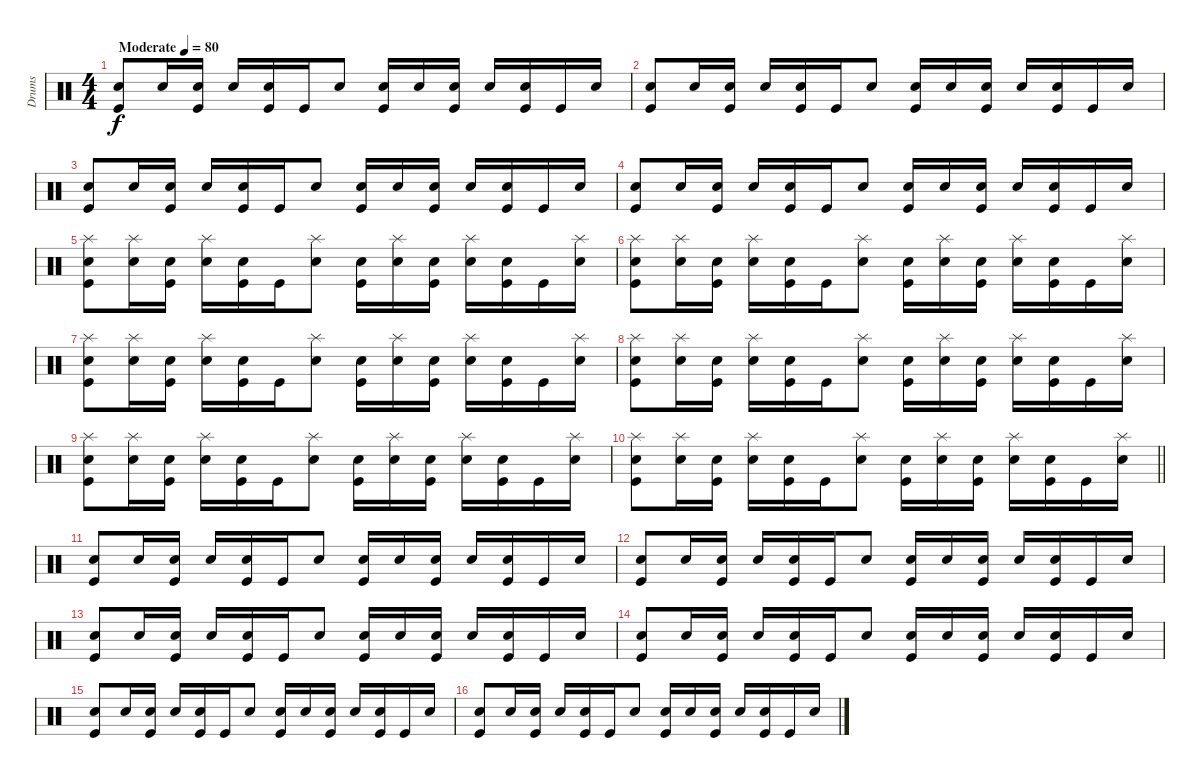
\track ("Drums" "Drums") {instrument percussion}
\staff {score}
\articulation defaults
\ts (4 4)
\tempo (80 "Moderate")
\clef neutral
\ks c
("Electric Snare (hit)" "Kick (hit)").8{dy f} "Snare (hit) 2".16 ("Electric Snare (hit)" "Kick (hit)").16 "Snare (hit) 2".16 ("Electric Snare (hit)" "Kick (hit)").16 "Kick (hit)".16 "Snare (hit) 2".8 ("Electric Snare (hit)" "Kick (hit)").16 "Snare (hit) 2".16 ("Electric Snare (hit)" "Kick (hit)").16 "Snare (hit) 2".16 ("Electric Snare (hit)" "Kick (hit)").16 "Kick (hit)".16 "Snare (hit) 2".16 |
("Electric Snare (hit)" "Kick (hit)").8 "Snare (hit) 2".16 ("Electric Snare (hit)" "Kick (hit)").16 "Snare (hit) 2".16 ("Electric Snare (hit)" "Kick (hit)").16 "Kick (hit)".16 "Snare (hit) 2".8 ("Electric Snare (hit)" "Kick (hit)").16 "Snare (hit) 2".16 ("Electric Snare (hit)" "Kick (hit)").16 "Snare (hit) 2".16 ("Electric Snare (hit)" "Kick (hit)").16 "Kick (hit)".16 "Snare (hit) 2".16 |
("Electric Snare (hit)" "Kick (hit)").8 "Snare (hit) 2".16 ("Electric Snare (hit)" "Kick (hit)").16 "Snare (hit) 2".16 ("Electric Snare (hit)" "Kick (hit)").16 "Kick (hit)".16 "Snare (hit) 2".8 ("Electric Snare (hit)" "Kick (hit)").16 "Snare (hit) 2".16 ("Electric Snare (hit)" "Kick (hit)").16 "Snare (hit) 2".16 ("Electric Snare (hit)" "Kick (hit)").16 "Kick (hit)".16 "Snare (hit) 2".16 |
("Electric Snare (hit)" "Kick (hit)").8 "Snare (hit) 2".16 ("Electric Snare (hit)" "Kick (hit)").16 "Snare (hit) 2".16 ("Electric Snare (hit)" "Kick (hit)").16 "Kick (hit)".16 "Snare (hit) 2".8 ("Electric Snare (hit)" "Kick (hit)").16 "Snare (hit) 2".16 ("Electric Snare (hit)" "Kick (hit)").16 "Snare (hit) 2".16 ("Electric Snare (hit)" "Kick (hit)").16 "Kick (hit)".16 "Snare (hit) 2".16 |
("Splash (hit)" "Electric Snare (hit)" "Kick (hit)").8 ("Splash (hit)" "Snare (hit) 2").16 ("Electric Snare (hit)" "Kick (hit)").16 ("Splash (hit)" "Snare (hit) 2").16 ("Electric Snare (hit)" "Kick (hit)").16 "Kick (hit)".16 ("Splash (hit)" "Snare (hit) 2").8 ("Electric Snare (hit)" "Kick (hit)").16 ("Splash (hit)" "Snare (hit) 2").16 ("Electric Snare (hit)" "Kick (hit)").16 ("Splash (hit)" "Snare (hit) 2").16 ("Electric Snare (hit)" "Kick (hit)").16 "Kick (hit)".16 ("Splash (hit)" "Snare (hit) 2").16 |
("Splash (hit)" "Electric Snare (hit)" "Kick (hit)").8 ("Splash (hit)" "Snare (hit) 2").16 ("Electric Snare (hit)" "Kick (hit)").16 ("Splash (hit)" "Snare (hit) 2").16 ("Electric Snare (hit)" "Kick (hit)").16 "Kick (hit)".16 ("Splash (hit)" "Snare (hit) 2").8 ("Electric Snare (hit)" "Kick (hit)").16 ("Splash (hit)" "Snare (hit) 2").16 ("Electric Snare (hit)" "Kick (hit)").16 ("Splash (hit)" "Snare (hit) 2").16 ("Electric Snare (hit)" "Kick (hit)").16 "Kick (hit)".16 ("Splash (hit)" "Snare (hit) 2").16 |
("Splash (hit)" "Electric Snare (hit)" "Kick (hit)").8 ("Splash (hit)" "Snare (hit) 2").16 ("Electric Snare (hit)" "Kick (hit)").16 ("Splash (hit)" "Snare (hit) 2").16 ("Electric Snare (hit)" "Kick (hit)").16 "Kick (hit)".16 ("Splash (hit)" "Snare (hit) 2").8 ("Electric Snare (hit)" "Kick (hit)").16 ("Splash (hit)" "Snare (hit) 2").16 ("Electric Snare (hit)" "Kick (hit)").16 ("Splash (hit)" "Snare (hit) 2").16 ("Electric Snare (hit)" "Kick (hit)").16 "Kick (hit)".16 ("Splash (hit)" "Snare (hit) 2").16 |
("Splash (hit)" "Electric Snare (hit)" "Kick (hit)").8 ("Splash (hit)" "Snare (hit) 2").16 ("Electric Snare (hit)" "Kick (hit)").16 ("Splash (hit)" "Snare (hit) 2").16 ("Electric Snare (hit)" "Kick (hit)").16 "Kick (hit)".16 ("Splash (hit)" "Snare (hit) 2").8 ("Electric Snare (hit)" "Kick (hit)").16 ("Splash (hit)" "Snare (hit) 2").16 ("Electric Snare (hit)" "Kick (hit)").16 ("Splash (hit)" "Snare (hit) 2").16 ("Electric Snare (hit)" "Kick (hit)").16 "Kick (hit)".16 ("Splash (hit)" "Snare (hit) 2").16 |
("Splash (hit)" "Electric Snare (hit)" "Kick (hit)").8 ("Splash (hit)" "Snare (hit) 2").16 ("Electric Snare (hit)" "Kick (hit)").16 ("Splash (hit)" "Snare (hit) 2").16 ("Electric Snare (hit)" "Kick (hit)").16 "Kick (hit)".16 ("Splash (hit)" "Snare (hit) 2").8 ("Electric Snare (hit)" "Kick (hit)").16 ("Splash (hit)" "Snare (hit) 2").16 ("Electric Snare (hit)" "Kick (hit)").16 ("Splash (hit)" "Snare (hit) 2").16 ("Electric Snare (hit)" "Kick (hit)").16 "Kick (hit)".16 ("Splash (hit)" "Snare (hit) 2").16 |
\barLineRight lightlight
("Splash (hit)" "Electric Snare (hit)" "Kick (hit)").8 ("Splash (hit)" "Snare (hit) 2").16 ("Electric Snare (hit)" "Kick (hit)").16 ("Splash (hit)" "Snare (hit) 2").16 ("Electric Snare (hit)" "Kick (hit)").16 "Kick (hit)".16 ("Splash (hit)" "Snare (hit) 2").8 ("Electric Snare (hit)" "Kick (hit)").16 ("Splash (hit)" "Snare (hit) 2").16 ("Electric Snare (hit)" "Kick (hit)").16 ("Splash (hit)" "Snare (hit) 2").16 ("Electric Snare (hit)" "Kick (hit)").16 "Kick (hit)".16 ("Splash (hit)" "Snare (hit) 2").16 |
("Electric Snare (hit)" "Kick (hit)").8 "Snare (hit) 2".16 ("Electric Snare (hit)" "Kick (hit)").16 "Snare (hit) 2".16 ("Electric Snare (hit)" "Kick (hit)").16 "Kick (hit)".16 "Snare (hit) 2".8 ("Electric Snare (hit)" "Kick (hit)").16 "Snare (hit) 2".16 ("Electric Snare (hit)" "Kick (hit)").16 "Snare (hit) 2".16 ("Electric Snare (hit)" "Kick (hit)").16 "Kick (hit)".16 "Snare (hit) 2".16 |
("Electric Snare (hit)" "Kick (hit)").8 "Snare (hit) 2".16 ("Electric Snare (hit)" "Kick (hit)").16 "Snare (hit) 2".16 ("Electric Snare (hit)" "Kick (hit)").16 "Kick (hit)".16 "Snare (hit) 2".8 ("Electric Snare (hit)" "Kick (hit)").16 "Snare (hit) 2".16 ("Electric Snare (hit)" "Kick (hit)").16 "Snare (hit) 2".16 ("Electric Snare (hit)" "Kick (hit)").16 "Kick (hit)".16 "Snare (hit) 2".16 |
("Electric Snare (hit)" "Kick (hit)").8 "Snare (hit) 2".16 ("Electric Snare (hit)" "Kick (hit)").16 "Snare (hit) 2".16 ("Electric Snare (hit)" "Kick (hit)").16 "Kick (hit)".16 "Snare (hit) 2".8 ("Electric Snare (hit)" "Kick (hit)").16 "Snare (hit) 2".16 ("Electric Snare (hit)" "Kick (hit)").16 "Snare (hit) 2".16 ("Electric Snare (hit)" "Kick (hit)").16 "Kick (hit)".16 "Snare (hit) 2".16 |
("Electric Snare (hit)" "Kick (hit)").8 "Snare (hit) 2".16 ("Electric Snare (hit)" "Kick (hit)").16 "Snare (hit) 2".16 ("Electric Snare (hit)" "Kick (hit)").16 "Kick (hit)".16 "Snare (hit) 2".8 ("Electric Snare (hit)" "Kick (hit)").16 "Snare (hit) 2".16 ("Electric Snare (hit)" "Kick (hit)").16 "Snare (hit) 2".16 ("Electric Snare (hit)" "Kick (hit)").16 "Kick (hit)".16 "Snare (hit) 2".16 |
("Electric Snare (hit)" "Kick (hit)").8 "Snare (hit) 2".16 ("Electric Snare (hit)" "Kick (hit)").16 "Snare (hit) 2".16 ("Electric Snare (hit)" "Kick (hit)").16 "Kick (hit)".16 "Snare (hit) 2".8 ("Electric Snare (hit)" "Kick (hit)").16 "Snare (hit) 2".16 ("Electric Snare (hit)" "Kick (hit)").16 "Snare (hit) 2".16 ("Electric Snare (hit)" "Kick (hit)").16 "Kick (hit)".16 "Snare (hit) 2".16 |
("Electric Snare (hit)" "Kick (hit)").8 "Snare (hit) 2".16 ("Electric Snare (hit)" "Kick (hit)").16 "Snare (hit) 2".16 ("Electric Snare (hit)" "Kick (hit)").16 "Kick (hit)".16 "Snare (hit) 2".8 ("Electric Snare (hit)" "Kick (hit)").16 "Snare (hit) 2".16 ("Electric Snare (hit)" "Kick (hit)").16 "Snare (hit) 2".16 ("Electric Snare (hit)" "Kick (hit)").16 "Kick (hit)".16 "Snare (hit) 2".16
